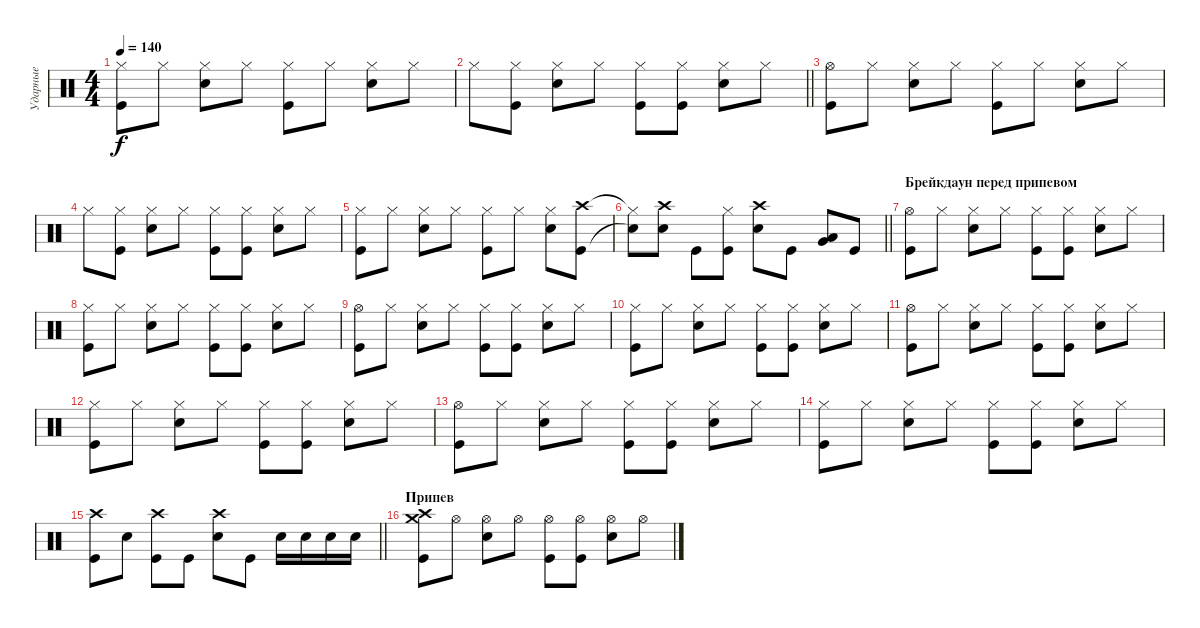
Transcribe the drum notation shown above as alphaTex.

\track ("Ударные" "Ударные") {instrument percussion}
\staff {score}
\articulation defaults
\ts (4 4)
\tempo 140
\clef neutral
\ks c
("Hi-Hat (closed)" "Kick (hit)").8{dy f} "Hi-Hat (closed)".8 ("Hi-Hat (closed)" "Snare (hit) 2").8 "Hi-Hat (closed)".8 ("Hi-Hat (closed)" "Kick (hit)").8 "Hi-Hat (closed)".8 ("Hi-Hat (closed)" "Snare (hit) 2").8 "Hi-Hat (closed)".8 |
\barLineRight lightlight "Hi-Hat (closed)".8
("Hi-Hat (closed)" "Kick (hit)").8 ("Hi-Hat (closed)" "Snare (hit) 2").8 "Hi-Hat (closed)".8 ("Hi-Hat (closed)" "Kick (hit)").8 ("Hi-Hat (closed)" "Kick (hit)").8 ("Hi-Hat (closed)" "Snare (hit) 2").8 "Hi-Hat (closed)".8 |
("Hi-Hat (open)" "Kick (hit)").8 "Hi-Hat (closed)".8 ("Hi-Hat (closed)" "Snare (hit) 2").8 "Hi-Hat (closed)".8 ("Hi-Hat (closed)" "Kick (hit)").8 "Hi-Hat (closed)".8 ("Hi-Hat (closed)" "Snare (hit) 2").8 "Hi-Hat (closed)".8 |
"Hi-Hat (closed)".8 ("Hi-Hat (closed)" "Kick (hit)").8 ("Hi-Hat (closed)" "Snare (hit) 2").8 "Hi-Hat (closed)".8 ("Hi-Hat (closed)" "Kick (hit)").8 ("Hi-Hat (closed)" "Kick (hit)").8 ("Hi-Hat (closed)" "Snare (hit) 2").8 "Hi-Hat (closed)".8 |
("Hi-Hat (closed)" "Kick (hit)").8 "Hi-Hat (closed)".8 ("Hi-Hat (closed)" "Snare (hit) 2").8 "Hi-Hat (closed)".8 ("Hi-Hat (closed)" "Kick (hit)").8 "Hi-Hat (closed)".8 ("Hi-Hat (closed)" "Snare (hit) 2").8 ("Crash high (hit)" "Kick (hit)").8 |
\barLineRight lightlight
("Hi-Hat (closed)"{t} "Snare (hit)"{t}).8 ("Crash high (hit)" "Snare (hit) 2").8 "Kick (hit)".8 ("Hi-Hat (closed)" "Kick (hit)").8 ("Crash high (hit)" "Snare (hit) 2").8 "Kick (hit)".8 ("Low Tom (hit)" "Very Low Tom (hit)").8 "Kick (hit)".8 |
\section ("" "Брейкдаун перед припевом")
("Hi-Hat (open)" "Kick (hit)").8 "Hi-Hat (closed)".8 ("Hi-Hat (closed)" "Snare (hit) 2").8 "Hi-Hat (closed)".8 ("Hi-Hat (closed)" "Kick (hit)").8 ("Hi-Hat (closed)" "Kick (hit)").8 ("Hi-Hat (closed)" "Snare (hit) 2").8 "Hi-Hat (closed)".8 |
("Hi-Hat (closed)" "Kick (hit)").8 "Hi-Hat (closed)".8 ("Hi-Hat (closed)" "Snare (hit) 2").8 "Hi-Hat (closed)".8 ("Hi-Hat (closed)" "Kick (hit)").8 ("Hi-Hat (closed)" "Kick (hit)").8 ("Hi-Hat (closed)" "Snare (hit) 2").8 "Hi-Hat (closed)".8 |
("Hi-Hat (open)" "Kick (hit)").8 "Hi-Hat (closed)".8 ("Hi-Hat (closed)" "Snare (hit) 2").8 "Hi-Hat (closed)".8 ("Hi-Hat (closed)" "Kick (hit)").8 ("Hi-Hat (closed)" "Kick (hit)").8 ("Hi-Hat (closed)" "Snare (hit) 2").8 "Hi-Hat (closed)".8 |
("Hi-Hat (closed)" "Kick (hit)").8 "Hi-Hat (closed)".8 ("Hi-Hat (closed)" "Snare (hit) 2").8 "Hi-Hat (closed)".8 ("Hi-Hat (closed)" "Kick (hit)").8 ("Hi-Hat (closed)" "Kick (hit)").8 ("Hi-Hat (closed)" "Snare (hit) 2").8 "Hi-Hat (closed)".8 |
("Hi-Hat (open)" "Kick (hit)").8 "Hi-Hat (closed)".8 ("Hi-Hat (closed)" "Snare (hit) 2").8 "Hi-Hat (closed)".8 ("Hi-Hat (closed)" "Kick (hit)").8 ("Hi-Hat (closed)" "Kick (hit)").8 ("Hi-Hat (closed)" "Snare (hit) 2").8 "Hi-Hat (closed)".8 |
("Hi-Hat (closed)" "Kick (hit)").8 "Hi-Hat (closed)".8 ("Hi-Hat (closed)" "Snare (hit) 2").8 "Hi-Hat (closed)".8 ("Hi-Hat (closed)" "Kick (hit)").8 ("Hi-Hat (closed)" "Kick (hit)").8 ("Hi-Hat (closed)" "Snare (hit) 2").8 "Hi-Hat (closed)".8 |
("Hi-Hat (open)" "Kick (hit)").8 "Hi-Hat (closed)".8 ("Hi-Hat (closed)" "Snare (hit) 2").8 "Hi-Hat (closed)".8 ("Hi-Hat (closed)" "Kick (hit)").8 ("Hi-Hat (closed)" "Kick (hit)").8 ("Hi-Hat (closed)" "Snare (hit) 2").8 "Hi-Hat (closed)".8 |
("Hi-Hat (closed)" "Kick (hit)").8 "Hi-Hat (closed)".8 ("Hi-Hat (closed)" "Snare (hit) 2").8 "Hi-Hat (closed)".8 ("Hi-Hat (closed)" "Kick (hit)").8 ("Hi-Hat (closed)" "Kick (hit)").8 ("Hi-Hat (closed)" "Snare (hit) 2").8 "Hi-Hat (closed)".8 |
\barLineRight lightlight
("Crash high (hit)" "Kick (hit)").8 "Snare (hit) 2".8 ("Crash high (hit)" "Kick (hit)").8 "Kick (hit)".8 ("Crash high (hit)" "Snare (hit) 2").8 "Kick (hit)".8 "Snare (hit) 2".16 "Snare (hit) 2".16 "Snare (hit) 2".16 "Snare (hit) 2".16 |
\section ("" "Припев")
("Crash medium (hit)" "Crash high (hit)" "Kick (hit)").8 "Hi-Hat (open)".8 ("Hi-Hat (open)" "Snare (hit) 2").8 "Hi-Hat (open)".8 ("Hi-Hat (open)" "Kick (hit)").8 ("Hi-Hat (open)" "Kick (hit)").8 ("Hi-Hat (open)" "Snare (hit) 2").8 "Hi-Hat (open)".8
